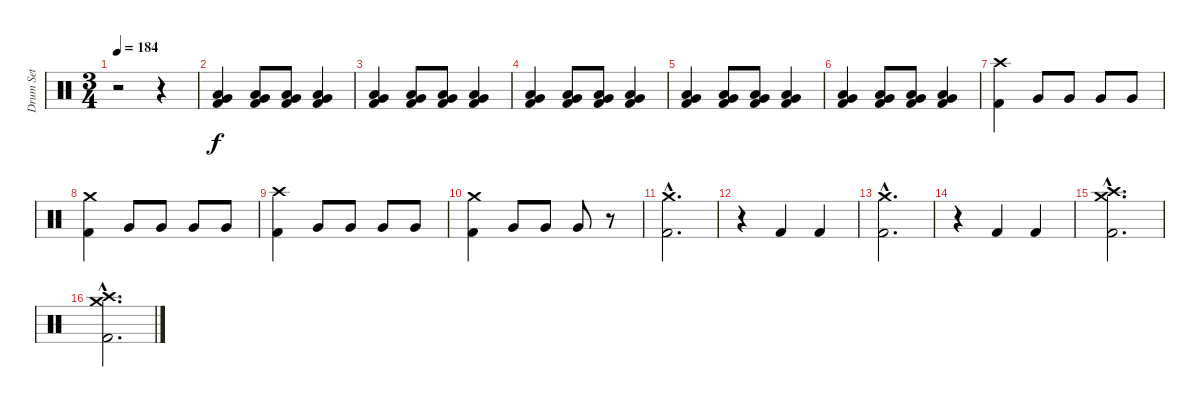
\track ("Drum Set" "Drum Set") {instrument percussion}
\staff {score}
\articulation defaults
\ts (3 4)
\tempo 184
\clef neutral
\ks c
r.2{dy f} r.4 |
("Very Low Tom (hit)" "Low Floor Tom (hit)" "Kick (hit) 2").4 ("Very Low Tom (hit)" "Low Floor Tom (hit)" "Kick (hit) 2").8 ("Very Low Tom (hit)" "Low Floor Tom (hit)" "Kick (hit) 2").8 ("Very Low Tom (hit)" "Low Floor Tom (hit)" "Kick (hit) 2").4 |
("Very Low Tom (hit)" "Low Floor Tom (hit)" "Kick (hit) 2").4 ("Very Low Tom (hit)" "Low Floor Tom (hit)" "Kick (hit) 2").8 ("Very Low Tom (hit)" "Low Floor Tom (hit)" "Kick (hit) 2").8 ("Very Low Tom (hit)" "Low Floor Tom (hit)" "Kick (hit) 2").4 |
("Very Low Tom (hit)" "Low Floor Tom (hit)" "Kick (hit) 2").4 ("Very Low Tom (hit)" "Low Floor Tom (hit)" "Kick (hit) 2").8 ("Very Low Tom (hit)" "Low Floor Tom (hit)" "Kick (hit) 2").8 ("Very Low Tom (hit)" "Low Floor Tom (hit)" "Kick (hit) 2").4 |
("Very Low Tom (hit)" "Low Floor Tom (hit)" "Kick (hit) 2").4 ("Very Low Tom (hit)" "Low Floor Tom (hit)" "Kick (hit) 2").8 ("Very Low Tom (hit)" "Low Floor Tom (hit)" "Kick (hit) 2").8 ("Very Low Tom (hit)" "Low Floor Tom (hit)" "Kick (hit) 2").4 |
("Very Low Tom (hit)" "Low Floor Tom (hit)" "Kick (hit) 2").4 ("Very Low Tom (hit)" "Low Floor Tom (hit)" "Kick (hit) 2").8 ("Very Low Tom (hit)" "Low Floor Tom (hit)" "Kick (hit) 2").8 ("Very Low Tom (hit)" "Low Floor Tom (hit)" "Kick (hit) 2").4 |
("Crash high (hit)" "Kick (hit) 2").4 "Very Low Tom (hit)".8 "Very Low Tom (hit)".8 "Very Low Tom (hit)".8 "Very Low Tom (hit)".8 |
("Crash medium (hit)" "Kick (hit) 2").4 "Very Low Tom (hit)".8 "Very Low Tom (hit)".8 "Very Low Tom (hit)".8 "Very Low Tom (hit)".8 |
("Crash high (hit)" "Kick (hit) 2").4 "Very Low Tom (hit)".8 "Very Low Tom (hit)".8 "Very Low Tom (hit)".8 "Very Low Tom (hit)".8 |
("Crash medium (hit)" "Kick (hit) 2").4 "Very Low Tom (hit)".8 "Very Low Tom (hit)".8 "Very Low Tom (hit)".8 r.8 |
("Crash medium (hit)"{hac} "Kick (hit) 2"{hac}).2{d} |
r.4 "Kick (hit) 2".4 "Kick (hit) 2".4 |
("Crash medium (hit)"{hac} "Kick (hit) 2"{hac}).2{d} |
r.4 "Kick (hit) 2".4 "Kick (hit) 2".4 |
("Crash medium (hit)"{hac} "Crash high (hit)"{hac} "Kick (hit) 2"{hac}).2{d} |
("Crash medium (hit)"{hac} "Crash high (hit)"{hac} "Kick (hit) 2"{hac}).2{d}
